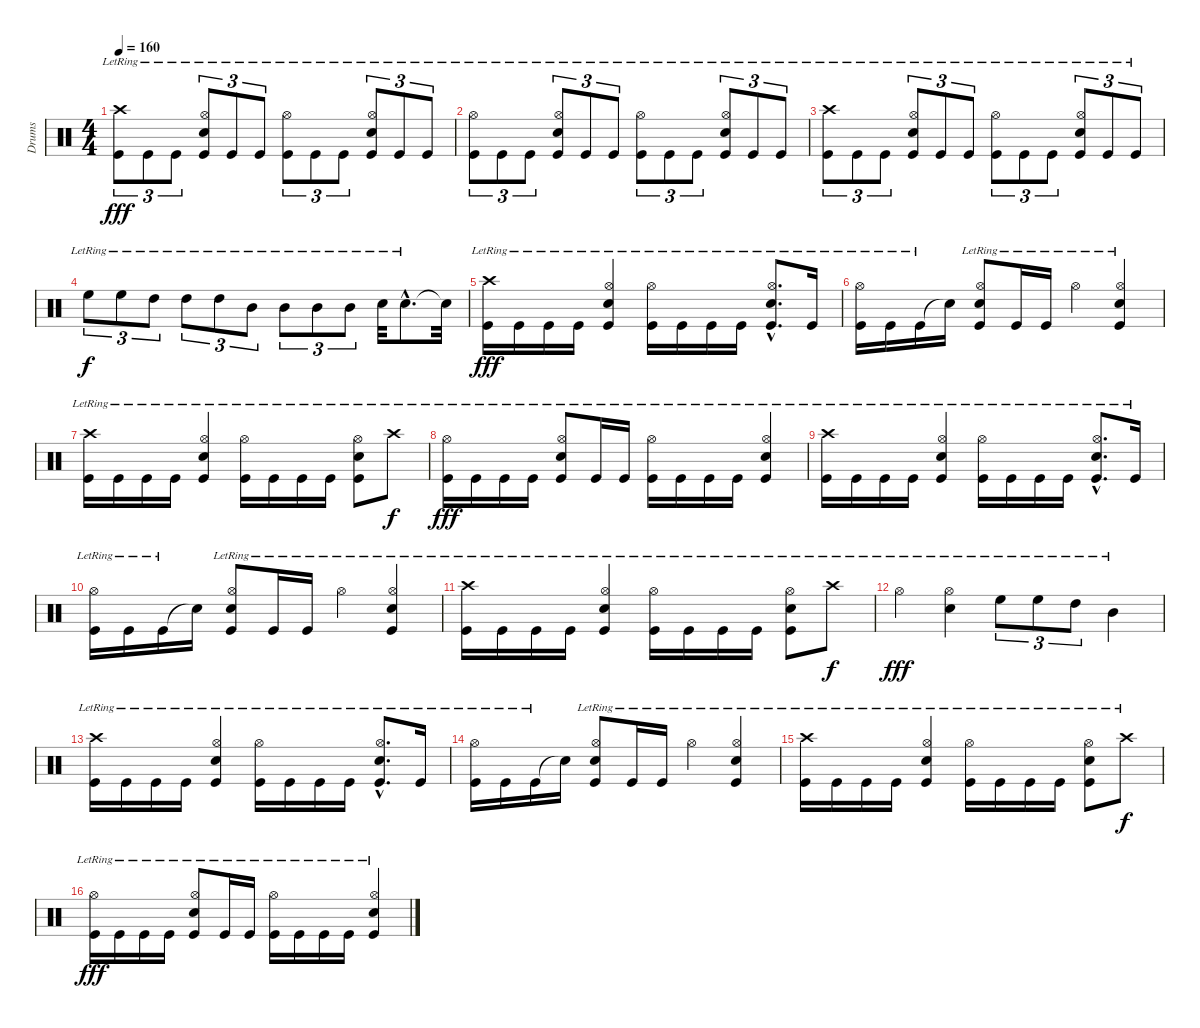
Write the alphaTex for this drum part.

\track ("Drums" "Drums") {instrument percussion}
\staff {score}
\articulation defaults
\ts (4 4)
\tempo 160
\clef neutral
\ks c
("Crash high (hit)"{lr} "Kick (hit)"{lr}).8{tu (3 2) dy fff} "Kick (hit)"{lr}.8{tu (3 2)} "Kick (hit)"{lr}.8{tu (3 2)} ("Hi-Hat (open)"{lr} "Snare (hit) 2"{lr} "Kick (hit)"{lr}).8{tu (3 2)} "Kick (hit)"{lr}.8{tu (3 2)} "Kick (hit)"{lr}.8{tu (3 2)} ("Hi-Hat (open)"{lr} "Kick (hit)"{lr}).8{tu (3 2)} "Kick (hit)"{lr}.8{tu (3 2)} "Kick (hit)"{lr}.8{tu (3 2)} ("Hi-Hat (open)"{lr} "Snare (hit) 2"{lr} "Kick (hit)"{lr}).8{tu (3 2)} "Kick (hit)"{lr}.8{tu (3 2)} "Kick (hit)"{lr}.8{tu (3 2)} |
("Hi-Hat (open)"{lr} "Kick (hit)"{lr}).8{tu (3 2)} "Kick (hit)"{lr}.8{tu (3 2)} "Kick (hit)"{lr}.8{tu (3 2)} ("Hi-Hat (open)"{lr} "Snare (hit) 2"{lr} "Kick (hit)"{lr}).8{tu (3 2)} "Kick (hit)"{lr}.8{tu (3 2)} "Kick (hit)"{lr}.8{tu (3 2)} ("Hi-Hat (open)"{lr} "Kick (hit)"{lr}).8{tu (3 2)} "Kick (hit)"{lr}.8{tu (3 2)} "Kick (hit)"{lr}.8{tu (3 2)} ("Hi-Hat (open)"{lr} "Snare (hit) 2"{lr} "Kick (hit)"{lr}).8{tu (3 2)} "Kick (hit)"{lr}.8{tu (3 2)} "Kick (hit)"{lr}.8{tu (3 2)} |
("Crash high (hit)"{lr} "Kick (hit)"{lr}).8{tu (3 2)} "Kick (hit)"{lr}.8{tu (3 2)} "Kick (hit)"{lr}.8{tu (3 2)} ("Hi-Hat (open)"{lr} "Snare (hit) 2"{lr} "Kick (hit)"{lr}).8{tu (3 2)} "Kick (hit)"{lr}.8{tu (3 2)} "Kick (hit)"{lr}.8{tu (3 2)} ("Hi-Hat (open)"{lr} "Kick (hit)"{lr}).8{tu (3 2)} "Kick (hit)"{lr}.8{tu (3 2)} "Kick (hit)"{lr}.8{tu (3 2)} ("Hi-Hat (open)"{lr} "Snare (hit) 2"{lr} "Kick (hit)"{lr}).8{tu (3 2)} "Kick (hit)"{lr}.8{tu (3 2)} "Kick (hit)"{lr}.8{tu (3 2)} |
"High Floor Tom (hit)"{lr}.8{tu (3 2) dy f} "High Floor Tom (hit)"{lr}.8{tu (3 2)} "High Tom (hit)"{lr}.8{tu (3 2)} "High Tom (hit)"{lr}.8{tu (3 2)} "High Tom (hit)"{lr}.8{tu (3 2)} "Mid Tom (hit)"{lr}.8{tu (3 2)} "Mid Tom (hit)"{lr}.8{tu (3 2)} "Mid Tom (hit)"{lr}.8{tu (3 2)} "Mid Tom (hit)"{lr}.8{tu (3 2)} "Snare (hit) 2"{lr}.32 "Snare (hit) 2"{hac lr}.8{d} "Snare (hit)"{t}.32 |
("Crash high (hit)"{lr} "Kick (hit)"{lr}).16{dy fff} "Kick (hit)"{lr}.16 "Kick (hit)"{lr}.16 "Kick (hit)"{lr}.16 ("Hi-Hat (open)"{lr} "Snare (hit) 2"{lr} "Kick (hit)"{lr}).4 ("Hi-Hat (open)"{lr} "Kick (hit)"{lr}).16 "Kick (hit)"{lr}.16 "Kick (hit)"{lr}.16 "Kick (hit)"{lr}.16 ("Hi-Hat (open)"{hac lr} "Snare (hit) 2"{hac lr} "Kick (hit)"{hac lr}).8{d} "Kick (hit)"{lr}.16 |
("Hi-Hat (open)"{lr} "Kick (hit)"{lr}).16 "Kick (hit)"{lr}.16 "Kick (hit)"{lr}.16 "Snare (hit)"{t}.16 ("Hi-Hat (open)"{lr} "Snare (hit) 2"{lr} "Kick (hit)"{lr}).8 "Kick (hit)"{lr}.16 "Kick (hit)"{lr}.16 "Hi-Hat (open)"{lr}.4 ("Hi-Hat (open)"{lr} "Snare (hit) 2"{lr} "Kick (hit)"{lr}).4 |
("Crash high (hit)"{lr} "Kick (hit)"{lr}).16 "Kick (hit)"{lr}.16 "Kick (hit)"{lr}.16 "Kick (hit)"{lr}.16 ("Hi-Hat (open)"{lr} "Snare (hit) 2"{lr} "Kick (hit)"{lr}).4 ("Hi-Hat (open)"{lr} "Kick (hit)"{lr}).16 "Kick (hit)"{lr}.16 "Kick (hit)"{lr}.16 "Kick (hit)"{lr}.16 ("Hi-Hat (open)"{lr} "Snare (hit) 2"{lr} "Kick (hit)"{lr}).8 "Crash high (hit)"{lr}.8{dy f} |
("Hi-Hat (open)"{lr} "Kick (hit)"{lr}).16{dy fff} "Kick (hit)"{lr}.16 "Kick (hit)"{lr}.16 "Kick (hit)"{lr}.16 ("Hi-Hat (open)"{lr} "Snare (hit) 2"{lr} "Kick (hit)"{lr}).8 "Kick (hit)"{lr}.16 "Kick (hit)"{lr}.16 ("Hi-Hat (open)"{lr} "Kick (hit)"{lr}).16 "Kick (hit)"{lr}.16 "Kick (hit)"{lr}.16 "Kick (hit)"{lr}.16 ("Hi-Hat (open)"{lr} "Snare (hit) 2"{lr} "Kick (hit)"{lr}).4 |
("Crash high (hit)"{lr} "Kick (hit)"{lr}).16 "Kick (hit)"{lr}.16 "Kick (hit)"{lr}.16 "Kick (hit)"{lr}.16 ("Hi-Hat (open)"{lr} "Snare (hit) 2"{lr} "Kick (hit)"{lr}).4 ("Hi-Hat (open)"{lr} "Kick (hit)"{lr}).16 "Kick (hit)"{lr}.16 "Kick (hit)"{lr}.16 "Kick (hit)"{lr}.16 ("Hi-Hat (open)"{hac lr} "Snare (hit) 2"{hac lr} "Kick (hit)"{hac lr}).8{d} "Kick (hit)"{lr}.16 |
("Hi-Hat (open)"{lr} "Kick (hit)"{lr}).16 "Kick (hit)"{lr}.16 "Kick (hit)"{lr}.16 "Snare (hit)"{t}.16 ("Hi-Hat (open)"{lr} "Snare (hit) 2"{lr} "Kick (hit)"{lr}).8 "Kick (hit)"{lr}.16 "Kick (hit)"{lr}.16 "Hi-Hat (open)"{lr}.4 ("Hi-Hat (open)"{lr} "Snare (hit) 2"{lr} "Kick (hit)"{lr}).4 |
("Crash high (hit)"{lr} "Kick (hit)"{lr}).16 "Kick (hit)"{lr}.16 "Kick (hit)"{lr}.16 "Kick (hit)"{lr}.16 ("Hi-Hat (open)"{lr} "Snare (hit) 2"{lr} "Kick (hit)"{lr}).4 ("Hi-Hat (open)"{lr} "Kick (hit)"{lr}).16 "Kick (hit)"{lr}.16 "Kick (hit)"{lr}.16 "Kick (hit)"{lr}.16 ("Hi-Hat (open)"{lr} "Snare (hit) 2"{lr} "Kick (hit)"{lr}).8 "Crash high (hit)"{lr}.8{dy f} |
"Hi-Hat (open)"{lr}.4{dy fff} ("Hi-Hat (open)"{lr} "Snare (hit) 2"{lr}).4 "High Floor Tom (hit)"{lr}.8{tu (3 2)} "High Floor Tom (hit)"{lr}.8{tu (3 2)} "High Tom (hit)"{lr}.8{tu (3 2)} "Mid Tom (hit)"{lr}.4 |
("Crash high (hit)"{lr} "Kick (hit)"{lr}).16 "Kick (hit)"{lr}.16 "Kick (hit)"{lr}.16 "Kick (hit)"{lr}.16 ("Hi-Hat (open)"{lr} "Snare (hit) 2"{lr} "Kick (hit)"{lr}).4 ("Hi-Hat (open)"{lr} "Kick (hit)"{lr}).16 "Kick (hit)"{lr}.16 "Kick (hit)"{lr}.16 "Kick (hit)"{lr}.16 ("Hi-Hat (open)"{hac lr} "Snare (hit) 2"{hac lr} "Kick (hit)"{hac lr}).8{d} "Kick (hit)"{lr}.16 |
("Hi-Hat (open)"{lr} "Kick (hit)"{lr}).16 "Kick (hit)"{lr}.16 "Kick (hit)"{lr}.16 "Snare (hit)"{t}.16 ("Hi-Hat (open)"{lr} "Snare (hit) 2"{lr} "Kick (hit)"{lr}).8 "Kick (hit)"{lr}.16 "Kick (hit)"{lr}.16 "Hi-Hat (open)"{lr}.4 ("Hi-Hat (open)"{lr} "Snare (hit) 2"{lr} "Kick (hit)"{lr}).4 |
("Crash high (hit)"{lr} "Kick (hit)"{lr}).16 "Kick (hit)"{lr}.16 "Kick (hit)"{lr}.16 "Kick (hit)"{lr}.16 ("Hi-Hat (open)"{lr} "Snare (hit) 2"{lr} "Kick (hit)"{lr}).4 ("Hi-Hat (open)"{lr} "Kick (hit)"{lr}).16 "Kick (hit)"{lr}.16 "Kick (hit)"{lr}.16 "Kick (hit)"{lr}.16 ("Hi-Hat (open)"{lr} "Snare (hit) 2"{lr} "Kick (hit)"{lr}).8 "Crash high (hit)"{lr}.8{dy f} |
("Hi-Hat (open)"{lr} "Kick (hit)"{lr}).16{dy fff} "Kick (hit)"{lr}.16 "Kick (hit)"{lr}.16 "Kick (hit)"{lr}.16 ("Hi-Hat (open)"{lr} "Snare (hit) 2"{lr} "Kick (hit)"{lr}).8 "Kick (hit)"{lr}.16 "Kick (hit)"{lr}.16 ("Hi-Hat (open)"{lr} "Kick (hit)"{lr}).16 "Kick (hit)"{lr}.16 "Kick (hit)"{lr}.16 "Kick (hit)"{lr}.16 ("Hi-Hat (open)"{lr} "Snare (hit) 2"{lr} "Kick (hit)"{lr}).4
